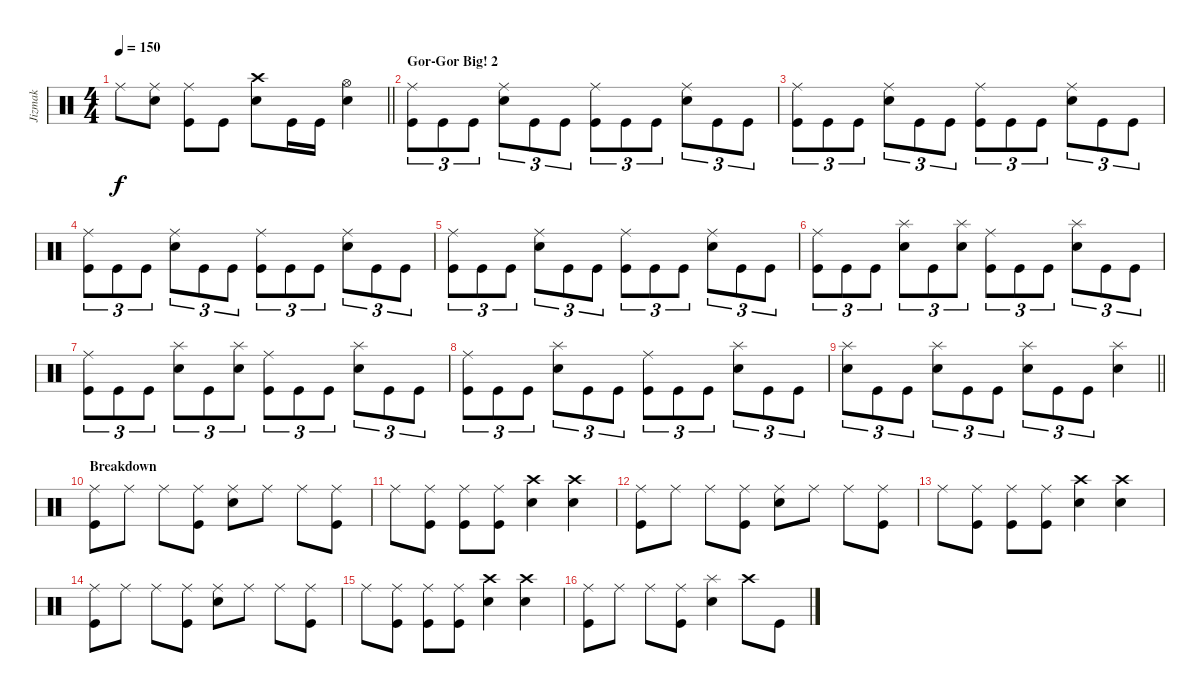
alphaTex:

\track ("Jizmak" "Jizmak") {instrument percussion}
\staff {score}
\articulation defaults
\ts (4 4)
\tempo 150
\clef neutral
\barLineRight lightlight
\ks c "Ride (middle)".8{dy f}
("Ride (middle)" "Snare (hit) 2").8 ("Ride (middle)" "Kick (hit)").8 "Kick (hit)".8 ("Crash high (hit)" "Snare (hit) 2").8 "Kick (hit)".16 "Kick (hit)".16 ("Hi-Hat (open)" "Snare (hit) 2").4 |
\section ("" "Gor-Gor Big! 2")
("Ride (middle)" "Kick (hit)").8{tu (3 2)} "Kick (hit)".8{tu (3 2)} "Kick (hit)".8{tu (3 2)} ("Ride (middle)" "Snare (hit) 2").8{tu (3 2)} "Kick (hit)".8{tu (3 2)} "Kick (hit)".8{tu (3 2)} ("Ride (middle)" "Kick (hit)").8{tu (3 2)} "Kick (hit)".8{tu (3 2)} "Kick (hit)".8{tu (3 2)} ("Ride (middle)" "Snare (hit) 2").8{tu (3 2)} "Kick (hit)".8{tu (3 2)} "Kick (hit)".8{tu (3 2)} |
("Ride (middle)" "Kick (hit)").8{tu (3 2)} "Kick (hit)".8{tu (3 2)} "Kick (hit)".8{tu (3 2)} ("Ride (middle)" "Snare (hit) 2").8{tu (3 2)} "Kick (hit)".8{tu (3 2)} "Kick (hit)".8{tu (3 2)} ("Ride (middle)" "Kick (hit)").8{tu (3 2)} "Kick (hit)".8{tu (3 2)} "Kick (hit)".8{tu (3 2)} ("Ride (middle)" "Snare (hit) 2").8{tu (3 2)} "Kick (hit)".8{tu (3 2)} "Kick (hit)".8{tu (3 2)} |
("Ride (middle)" "Kick (hit)").8{tu (3 2)} "Kick (hit)".8{tu (3 2)} "Kick (hit)".8{tu (3 2)} ("Ride (middle)" "Snare (hit) 2").8{tu (3 2)} "Kick (hit)".8{tu (3 2)} "Kick (hit)".8{tu (3 2)} ("Ride (middle)" "Kick (hit)").8{tu (3 2)} "Kick (hit)".8{tu (3 2)} "Kick (hit)".8{tu (3 2)} ("Ride (middle)" "Snare (hit) 2").8{tu (3 2)} "Kick (hit)".8{tu (3 2)} "Kick (hit)".8{tu (3 2)} |
("Ride (middle)" "Kick (hit)").8{tu (3 2)} "Kick (hit)".8{tu (3 2)} "Kick (hit)".8{tu (3 2)} ("Ride (middle)" "Snare (hit) 2").8{tu (3 2)} "Kick (hit)".8{tu (3 2)} "Kick (hit)".8{tu (3 2)} ("Ride (middle)" "Kick (hit)").8{tu (3 2)} "Kick (hit)".8{tu (3 2)} "Kick (hit)".8{tu (3 2)} ("Ride (middle)" "Snare (hit) 2").8{tu (3 2)} "Kick (hit)".8{tu (3 2)} "Kick (hit)".8{tu (3 2)} |
("Ride (middle)" "Kick (hit)").8{tu (3 2)} "Kick (hit)".8{tu (3 2)} "Kick (hit)".8{tu (3 2)} ("Splash (hit)" "Snare (hit) 2").8{tu (3 2)} "Kick (hit)".8{tu (3 2)} ("Splash (hit)" "Snare (hit) 2").8{tu (3 2)} ("Ride (middle)" "Kick (hit)").8{tu (3 2)} "Kick (hit)".8{tu (3 2)} "Kick (hit)".8{tu (3 2)} ("Splash (hit)" "Snare (hit) 2").8{tu (3 2)} "Kick (hit)".8{tu (3 2)} "Kick (hit)".8{tu (3 2)} |
("Ride (middle)" "Kick (hit)").8{tu (3 2)} "Kick (hit)".8{tu (3 2)} "Kick (hit)".8{tu (3 2)} ("Splash (hit)" "Snare (hit) 2").8{tu (3 2)} "Kick (hit)".8{tu (3 2)} ("Splash (hit)" "Snare (hit) 2").8{tu (3 2)} ("Ride (middle)" "Kick (hit)").8{tu (3 2)} "Kick (hit)".8{tu (3 2)} "Kick (hit)".8{tu (3 2)} ("Splash (hit)" "Snare (hit) 2").8{tu (3 2)} "Kick (hit)".8{tu (3 2)} "Kick (hit)".8{tu (3 2)} |
("Ride (middle)" "Kick (hit)").8{tu (3 2)} "Kick (hit)".8{tu (3 2)} "Kick (hit)".8{tu (3 2)} ("Splash (hit)" "Snare (hit) 2").8{tu (3 2)} "Kick (hit)".8{tu (3 2)} "Kick (hit)".8{tu (3 2)} ("Ride (middle)" "Kick (hit)").8{tu (3 2)} "Kick (hit)".8{tu (3 2)} "Kick (hit)".8{tu (3 2)} ("Splash (hit)" "Snare (hit) 2").8{tu (3 2)} "Kick (hit)".8{tu (3 2)} "Kick (hit)".8{tu (3 2)} |
\barLineRight lightlight
("Splash (hit)" "Snare (hit) 2").8{tu (3 2)} "Kick (hit)".8{tu (3 2)} "Kick (hit)".8{tu (3 2)} ("Splash (hit)" "Snare (hit) 2").8{tu (3 2)} "Kick (hit)".8{tu (3 2)} "Kick (hit)".8{tu (3 2)} ("Splash (hit)" "Snare (hit) 2").8{tu (3 2)} "Kick (hit)".8{tu (3 2)} "Kick (hit)".8{tu (3 2)} ("Splash (hit)" "Snare (hit) 2").4 |
\section ("" "Breakdown")
("Ride (middle)" "Kick (hit)").8 "Ride (middle)".8 "Ride (middle)".8 ("Ride (middle)" "Kick (hit)").8 ("Ride (middle)" "Snare (hit) 2").8 "Ride (middle)".8 "Ride (middle)".8 ("Ride (middle)" "Kick (hit)").8 |
"Ride (middle)".8 ("Ride (middle)" "Kick (hit)").8 ("Ride (middle)" "Kick (hit)").8 ("Ride (middle)" "Kick (hit)").8 ("Crash high (hit)" "Snare (hit) 2").4 ("Crash high (hit)" "Snare (hit) 2").4 |
("Ride (middle)" "Kick (hit)").8 "Ride (middle)".8 "Ride (middle)".8 ("Ride (middle)" "Kick (hit)").8 ("Ride (middle)" "Snare (hit) 2").8 "Ride (middle)".8 "Ride (middle)".8 ("Ride (middle)" "Kick (hit)").8 |
"Ride (middle)".8 ("Ride (middle)" "Kick (hit)").8 ("Ride (middle)" "Kick (hit)").8 ("Ride (middle)" "Kick (hit)").8 ("Crash high (hit)" "Snare (hit) 2").4 ("Crash high (hit)" "Snare (hit) 2").4 |
("Ride (middle)" "Kick (hit)").8 "Ride (middle)".8 "Ride (middle)".8 ("Ride (middle)" "Kick (hit)").8 ("Ride (middle)" "Snare (hit) 2").8 "Ride (middle)".8 "Ride (middle)".8 ("Ride (middle)" "Kick (hit)").8 |
"Ride (middle)".8 ("Ride (middle)" "Kick (hit)").8 ("Ride (middle)" "Kick (hit)").8 ("Ride (middle)" "Kick (hit)").8 ("Crash high (hit)" "Snare (hit) 2").4 ("Crash high (hit)" "Snare (hit) 2").4 |
("Ride (middle)" "Kick (hit)").8 "Ride (middle)".8 "Ride (middle)".8 ("Ride (middle)" "Kick (hit)").8 ("Splash (hit)" "Snare (hit) 2").4 "Crash high (hit)".8 "Kick (hit)".8
